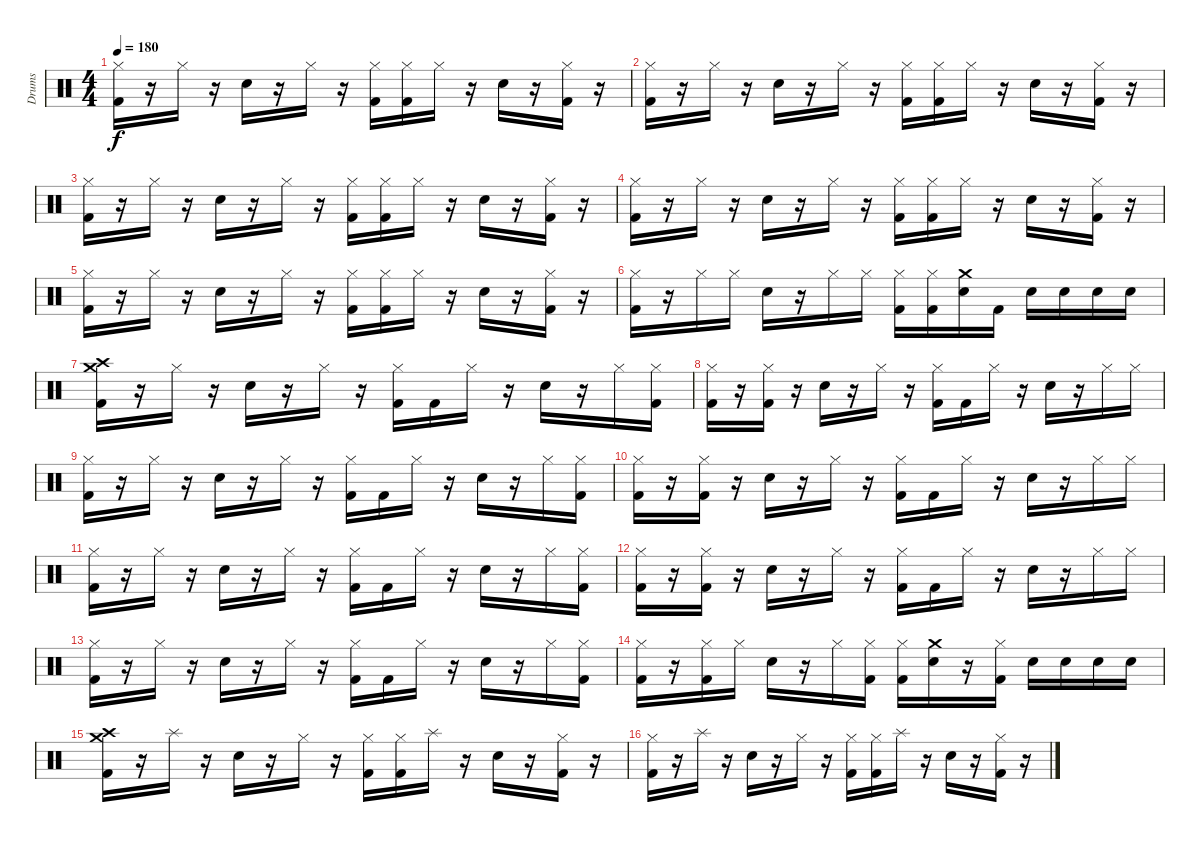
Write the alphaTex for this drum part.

\track ("Drums" "Drums") {instrument percussion}
\staff {score}
\articulation defaults
\ts (4 4)
\tempo 180
\clef neutral
\ks c
("Hi-Hat (closed)" "Kick (hit) 2").16{dy f} r.16 "Hi-Hat (closed)".16 r.16 "Snare (hit) 2".16 r.16 "Hi-Hat (closed)".16 r.16 ("Hi-Hat (closed)" "Kick (hit) 2").16 ("Hi-Hat (closed)" "Kick (hit) 2").16 "Hi-Hat (closed)".16 r.16 "Snare (hit) 2".16 r.16 ("Hi-Hat (closed)" "Kick (hit) 2").16 r.16 |
("Hi-Hat (closed)" "Kick (hit) 2").16 r.16 "Hi-Hat (closed)".16 r.16 "Snare (hit) 2".16 r.16 "Hi-Hat (closed)".16 r.16 ("Hi-Hat (closed)" "Kick (hit) 2").16 ("Hi-Hat (closed)" "Kick (hit) 2").16 "Hi-Hat (closed)".16 r.16 "Snare (hit) 2".16 r.16 ("Hi-Hat (closed)" "Kick (hit) 2").16 r.16 |
("Hi-Hat (closed)" "Kick (hit) 2").16 r.16 "Hi-Hat (closed)".16 r.16 "Snare (hit) 2".16 r.16 "Hi-Hat (closed)".16 r.16 ("Hi-Hat (closed)" "Kick (hit) 2").16 ("Hi-Hat (closed)" "Kick (hit) 2").16 "Hi-Hat (closed)".16 r.16 "Snare (hit) 2".16 r.16 ("Hi-Hat (closed)" "Kick (hit) 2").16 r.16 |
("Hi-Hat (closed)" "Kick (hit) 2").16 r.16 "Hi-Hat (closed)".16 r.16 "Snare (hit) 2".16 r.16 "Hi-Hat (closed)".16 r.16 ("Hi-Hat (closed)" "Kick (hit) 2").16 ("Hi-Hat (closed)" "Kick (hit) 2").16 "Hi-Hat (closed)".16 r.16 "Snare (hit) 2".16 r.16 ("Hi-Hat (closed)" "Kick (hit) 2").16 r.16 |
("Hi-Hat (closed)" "Kick (hit) 2").16 r.16 "Hi-Hat (closed)".16 r.16 "Snare (hit) 2".16 r.16 "Hi-Hat (closed)".16 r.16 ("Hi-Hat (closed)" "Kick (hit) 2").16 ("Hi-Hat (closed)" "Kick (hit) 2").16 "Hi-Hat (closed)".16 r.16 "Snare (hit) 2".16 r.16 ("Hi-Hat (closed)" "Kick (hit) 2").16 r.16 |
("Hi-Hat (closed)" "Kick (hit) 2").16 r.16 "Hi-Hat (closed)".16 "Hi-Hat (closed)".16 "Snare (hit) 2".16 r.16 "Hi-Hat (closed)".16 "Hi-Hat (closed)".16 ("Hi-Hat (closed)" "Kick (hit) 2").16 ("Hi-Hat (closed)" "Kick (hit) 2").16 ("Crash medium (hit)" "Snare (hit) 2").16 "Kick (hit) 2".16 "Snare (hit) 2".16 "Snare (hit) 2".16 "Snare (hit) 2".16 "Snare (hit) 2".16 |
("Crash medium (hit)" "Crash high (hit)" "Kick (hit) 2").16 r.16 "Hi-Hat (closed)".16 r.16 "Snare (hit) 2".16 r.16 "Hi-Hat (closed)".16 r.16 ("Hi-Hat (closed)" "Kick (hit) 2").16 "Kick (hit) 2".16 "Hi-Hat (closed)".16 r.16 "Snare (hit) 2".16 r.16 "Hi-Hat (closed)".16 ("Hi-Hat (closed)" "Kick (hit) 2").16 |
("Hi-Hat (closed)" "Kick (hit) 2").16 r.16 ("Hi-Hat (closed)" "Kick (hit) 2").16 r.16 "Snare (hit) 2".16 r.16 "Hi-Hat (closed)".16 r.16 ("Hi-Hat (closed)" "Kick (hit) 2").16 "Kick (hit) 2".16 "Hi-Hat (closed)".16 r.16 "Snare (hit) 2".16 r.16 "Hi-Hat (closed)".16 "Hi-Hat (closed)".16 |
("Hi-Hat (closed)" "Kick (hit) 2").16 r.16 "Hi-Hat (closed)".16 r.16 "Snare (hit) 2".16 r.16 "Hi-Hat (closed)".16 r.16 ("Hi-Hat (closed)" "Kick (hit) 2").16 "Kick (hit) 2".16 "Hi-Hat (closed)".16 r.16 "Snare (hit) 2".16 r.16 "Hi-Hat (closed)".16 ("Hi-Hat (closed)" "Kick (hit) 2").16 |
("Hi-Hat (closed)" "Kick (hit) 2").16 r.16 ("Hi-Hat (closed)" "Kick (hit) 2").16 r.16 "Snare (hit) 2".16 r.16 "Hi-Hat (closed)".16 r.16 ("Hi-Hat (closed)" "Kick (hit) 2").16 "Kick (hit) 2".16 "Hi-Hat (closed)".16 r.16 "Snare (hit) 2".16 r.16 "Hi-Hat (closed)".16 "Hi-Hat (closed)".16 |
("Hi-Hat (closed)" "Kick (hit) 2").16 r.16 "Hi-Hat (closed)".16 r.16 "Snare (hit) 2".16 r.16 "Hi-Hat (closed)".16 r.16 ("Hi-Hat (closed)" "Kick (hit) 2").16 "Kick (hit) 2".16 "Hi-Hat (closed)".16 r.16 "Snare (hit) 2".16 r.16 "Hi-Hat (closed)".16 ("Hi-Hat (closed)" "Kick (hit) 2").16 |
("Hi-Hat (closed)" "Kick (hit) 2").16 r.16 ("Hi-Hat (closed)" "Kick (hit) 2").16 r.16 "Snare (hit) 2".16 r.16 "Hi-Hat (closed)".16 r.16 ("Hi-Hat (closed)" "Kick (hit) 2").16 "Kick (hit) 2".16 "Hi-Hat (closed)".16 r.16 "Snare (hit) 2".16 r.16 "Hi-Hat (closed)".16 "Hi-Hat (closed)".16 |
("Hi-Hat (closed)" "Kick (hit) 2").16 r.16 "Hi-Hat (closed)".16 r.16 "Snare (hit) 2".16 r.16 "Hi-Hat (closed)".16 r.16 ("Hi-Hat (closed)" "Kick (hit) 2").16 "Kick (hit) 2".16 "Hi-Hat (closed)".16 r.16 "Snare (hit) 2".16 r.16 "Hi-Hat (closed)".16 ("Hi-Hat (closed)" "Kick (hit) 2").16 |
("Hi-Hat (closed)" "Kick (hit) 2").16 r.16 ("Hi-Hat (closed)" "Kick (hit) 2").16 "Hi-Hat (closed)".16 "Snare (hit) 2".16 r.16 "Hi-Hat (closed)".16 ("Hi-Hat (closed)" "Kick (hit) 2").16 ("Hi-Hat (closed)" "Kick (hit) 2").16 ("Crash medium (hit)" "Snare (hit) 2").16 r.16 ("Hi-Hat (closed)" "Kick (hit) 2").16 "Snare (hit) 2".16 "Snare (hit) 2".16 "Snare (hit) 2".16 "Snare (hit) 2".16 |
("Crash medium (hit)" "Crash high (hit)" "Kick (hit) 2").16 r.16 "Splash (hit)".16 r.16 "Snare (hit) 2".16 r.16 "Hi-Hat (closed)".16 r.16 ("Hi-Hat (closed)" "Kick (hit) 2").16 ("Hi-Hat (closed)" "Kick (hit) 2").16 "Splash (hit)".16 r.16 "Snare (hit) 2".16 r.16 ("Hi-Hat (closed)" "Kick (hit) 2").16 r.16 |
("Hi-Hat (closed)" "Kick (hit) 2").16 r.16 "Splash (hit)".16 r.16 "Snare (hit) 2".16 r.16 "Hi-Hat (closed)".16 r.16 ("Hi-Hat (closed)" "Kick (hit) 2").16 ("Hi-Hat (closed)" "Kick (hit) 2").16 "Splash (hit)".16 r.16 "Snare (hit) 2".16 r.16 ("Hi-Hat (closed)" "Kick (hit) 2").16 r.16
